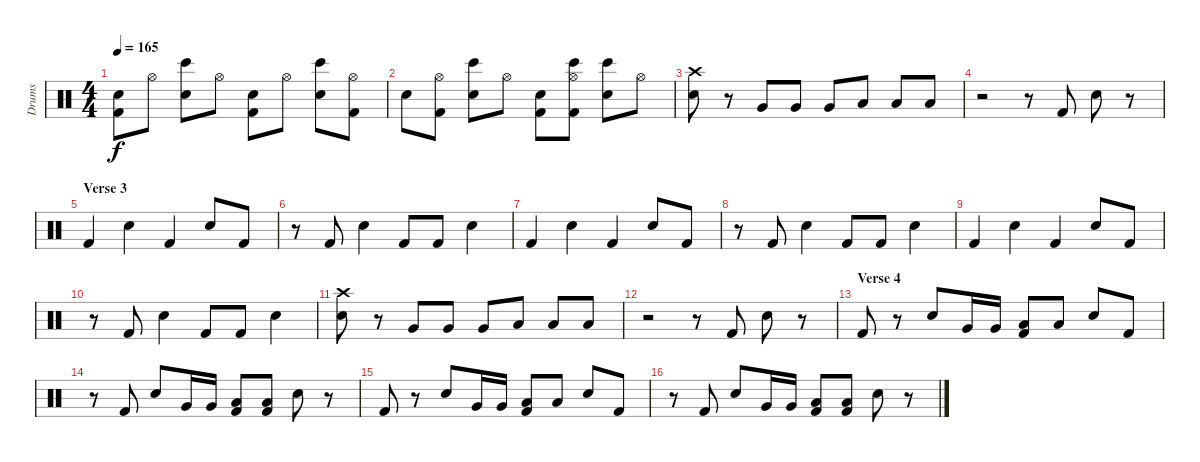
\track ("Drums" "Drums") {instrument percussion}
\staff {score}
\articulation defaults
\ts (4 4)
\tempo 165
\clef neutral
\ks c
("Kick (hit) 2" "Electric Snare (hit)").8{dy f} "Hi-Hat (open)".8 ("Electric Snare (hit)" "Bongo High (hit)").8 "Hi-Hat (open)".8 ("Kick (hit) 2" "Electric Snare (hit)").8 "Hi-Hat (open)".8 ("Electric Snare (hit)" "Bongo High (hit)").8 ("Hi-Hat (open)" "Kick (hit) 2").8 |
"Electric Snare (hit)".8 ("Hi-Hat (open)" "Kick (hit) 2").8 ("Electric Snare (hit)" "Bongo High (hit)").8 "Hi-Hat (open)".8 ("Kick (hit) 2" "Electric Snare (hit)").8 ("Hi-Hat (open)" "Kick (hit) 2" "Bongo High (hit)").8 ("Electric Snare (hit)" "Bongo High (hit)").8 "Hi-Hat (open)".8 |
("Crash high (hit)" "Electric Snare (hit)").8 r.8 "Very Low Tom (hit)".8 "Very Low Tom (hit)".8 "Very Low Tom (hit)".8 "Low Floor Tom (hit)".8 "Low Floor Tom (hit)".8 "Low Floor Tom (hit)".8 |
r.2 r.8 "Kick (hit) 2".8 "Electric Snare (hit)".8 r.8 |
\section ("" "Verse 3")
"Kick (hit) 2".4 "Electric Snare (hit)".4 "Kick (hit) 2".4 "Electric Snare (hit)".8 "Kick (hit) 2".8 |
r.8 "Kick (hit) 2".8 "Electric Snare (hit)".4 "Kick (hit) 2".8 "Kick (hit) 2".8 "Electric Snare (hit)".4 |
"Kick (hit) 2".4 "Electric Snare (hit)".4 "Kick (hit) 2".4 "Electric Snare (hit)".8 "Kick (hit) 2".8 |
r.8 "Kick (hit) 2".8 "Electric Snare (hit)".4 "Kick (hit) 2".8 "Kick (hit) 2".8 "Electric Snare (hit)".4 |
"Kick (hit) 2".4 "Electric Snare (hit)".4 "Kick (hit) 2".4 "Electric Snare (hit)".8 "Kick (hit) 2".8 |
r.8 "Kick (hit) 2".8 "Electric Snare (hit)".4 "Kick (hit) 2".8 "Kick (hit) 2".8 "Electric Snare (hit)".4 |
("Crash high (hit)" "Electric Snare (hit)").8 r.8 "Very Low Tom (hit)".8 "Very Low Tom (hit)".8 "Very Low Tom (hit)".8 "Low Floor Tom (hit)".8 "Low Floor Tom (hit)".8 "Low Floor Tom (hit)".8 |
r.2 r.8 "Kick (hit) 2".8 "Electric Snare (hit)".8 r.8 |
\section ("" "Verse 4")
"Kick (hit) 2".8 r.8 "Electric Snare (hit)".8 "Very Low Tom (hit)".16 "Very Low Tom (hit)".16 ("Kick (hit) 2" "Low Floor Tom (hit)").8 "Low Floor Tom (hit)".8 "Electric Snare (hit)".8 "Kick (hit) 2".8 |
r.8 "Kick (hit) 2".8 "Electric Snare (hit)".8 "Very Low Tom (hit)".16 "Very Low Tom (hit)".16 ("Kick (hit) 2" "Low Floor Tom (hit)").8 ("Kick (hit) 2" "Low Floor Tom (hit)").8 "Electric Snare (hit)".8 r.8 |
"Kick (hit) 2".8 r.8 "Electric Snare (hit)".8 "Very Low Tom (hit)".16 "Very Low Tom (hit)".16 ("Kick (hit) 2" "Low Floor Tom (hit)").8 "Low Floor Tom (hit)".8 "Electric Snare (hit)".8 "Kick (hit) 2".8 |
r.8 "Kick (hit) 2".8 "Electric Snare (hit)".8 "Very Low Tom (hit)".16 "Very Low Tom (hit)".16 ("Kick (hit) 2" "Low Floor Tom (hit)").8 ("Kick (hit) 2" "Low Floor Tom (hit)").8 "Electric Snare (hit)".8 r.8
